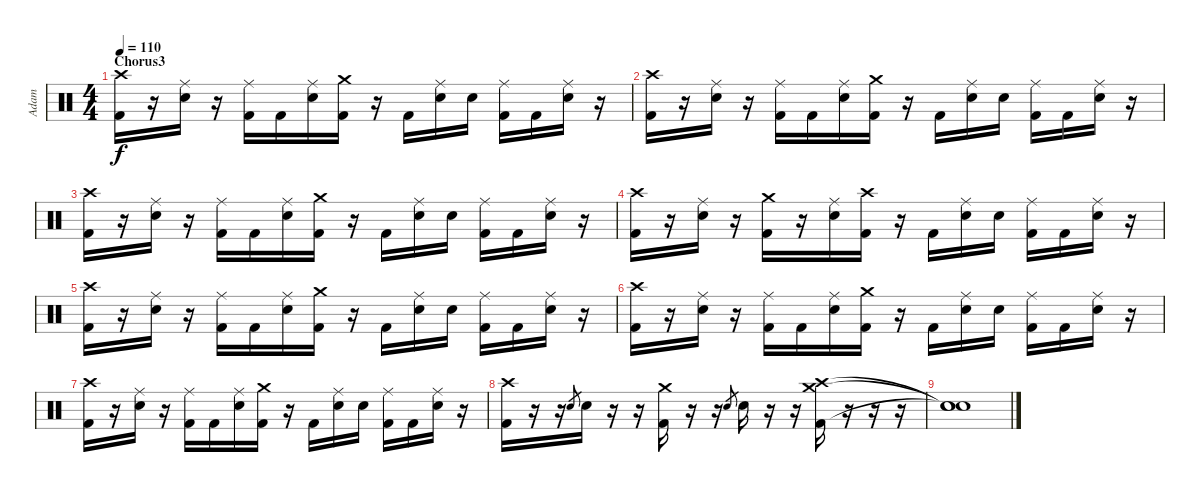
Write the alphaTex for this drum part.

\track ("Adam" "Adam") {instrument percussion}
\staff {score}
\articulation defaults
\ts (4 4)
\section ("" "Chorus3")
\tempo 110
\clef neutral
\ks c
("Crash high (hit)" "Kick (hit) 2").16{dy f} r.16 ("Ride (middle)" "Electric Snare (hit)").16 r.16 ("Ride (middle)" "Kick (hit) 2").16 "Kick (hit) 2".16 ("Ride (middle)" "Electric Snare (hit)").16 ("Crash medium (hit)" "Kick (hit) 2").16 r.16 "Kick (hit) 2".16 ("Ride (middle)" "Electric Snare (hit)").16 "Electric Snare (hit)".16 ("Ride (middle)" "Kick (hit) 2").16 "Kick (hit) 2".16 ("Ride (middle)" "Electric Snare (hit)").16 r.16 |
("Crash high (hit)" "Kick (hit) 2").16 r.16 ("Ride (middle)" "Electric Snare (hit)").16 r.16 ("Ride (middle)" "Kick (hit) 2").16 "Kick (hit) 2".16 ("Ride (middle)" "Electric Snare (hit)").16 ("Crash medium (hit)" "Kick (hit) 2").16 r.16 "Kick (hit) 2".16 ("Ride (middle)" "Electric Snare (hit)").16 "Electric Snare (hit)".16 ("Ride (middle)" "Kick (hit) 2").16 "Kick (hit) 2".16 ("Ride (middle)" "Electric Snare (hit)").16 r.16 |
("Crash high (hit)" "Kick (hit) 2").16 r.16 ("Ride (middle)" "Electric Snare (hit)").16 r.16 ("Ride (middle)" "Kick (hit) 2").16 "Kick (hit) 2".16 ("Ride (middle)" "Electric Snare (hit)").16 ("Crash medium (hit)" "Kick (hit) 2").16 r.16 "Kick (hit) 2".16 ("Ride (middle)" "Electric Snare (hit)").16 "Electric Snare (hit)".16 ("Ride (middle)" "Kick (hit) 2").16 "Kick (hit) 2".16 ("Ride (middle)" "Electric Snare (hit)").16 r.16 |
("Crash high (hit)" "Kick (hit) 2").16 r.16 ("Ride (middle)" "Electric Snare (hit)").16 r.16 ("Crash medium (hit)" "Kick (hit) 2").16 r.16 ("Ride (middle)" "Electric Snare (hit)").16 ("Crash high (hit)" "Kick (hit) 2").16 r.16 "Kick (hit) 2".16 ("Ride (middle)" "Electric Snare (hit)").16 "Electric Snare (hit)".16 ("Ride (middle)" "Kick (hit) 2").16 "Kick (hit) 2".16 ("Ride (middle)" "Electric Snare (hit)").16 r.16 |
("Crash high (hit)" "Kick (hit) 2").16 r.16 ("Ride (middle)" "Electric Snare (hit)").16 r.16 ("Ride (middle)" "Kick (hit) 2").16 "Kick (hit) 2".16 ("Ride (middle)" "Electric Snare (hit)").16 ("Crash medium (hit)" "Kick (hit) 2").16 r.16 "Kick (hit) 2".16 ("Ride (middle)" "Electric Snare (hit)").16 "Electric Snare (hit)".16 ("Ride (middle)" "Kick (hit) 2").16 "Kick (hit) 2".16 ("Ride (middle)" "Electric Snare (hit)").16 r.16 |
("Crash high (hit)" "Kick (hit) 2").16 r.16 ("Ride (middle)" "Electric Snare (hit)").16 r.16 ("Ride (middle)" "Kick (hit) 2").16 "Kick (hit) 2".16 ("Ride (middle)" "Electric Snare (hit)").16 ("Crash medium (hit)" "Kick (hit) 2").16 r.16 "Kick (hit) 2".16 ("Ride (middle)" "Electric Snare (hit)").16 "Electric Snare (hit)".16 ("Ride (middle)" "Kick (hit) 2").16 "Kick (hit) 2".16 ("Ride (middle)" "Electric Snare (hit)").16 r.16 |
("Crash high (hit)" "Kick (hit) 2").16 r.16 ("Ride (middle)" "Electric Snare (hit)").16 r.16 ("Ride (middle)" "Kick (hit) 2").16 "Kick (hit) 2".16 ("Ride (middle)" "Electric Snare (hit)").16 ("Crash medium (hit)" "Kick (hit) 2").16 r.16 "Kick (hit) 2".16 ("Ride (middle)" "Electric Snare (hit)").16 "Electric Snare (hit)".16 ("Ride (middle)" "Kick (hit) 2").16 "Kick (hit) 2".16 ("Ride (middle)" "Electric Snare (hit)").16 r.16 |
("Crash high (hit)" "Kick (hit) 2").16 r.16 r.16 "Electric Snare (hit)".8{gr} "Electric Snare (hit)".16 r.16 r.16 ("Crash medium (hit)" "Kick (hit) 2").16 r.16 r.16 "Electric Snare (hit)".8{gr} "Electric Snare (hit)".16 r.16 r.16 ("Crash high (hit)" "Crash medium (hit)" "Kick (hit) 2").16 r.16 r.16 r.16 |
("Snare (hit)"{t} "Snare (hit)"{t} "Snare (hit)"{t}).1
